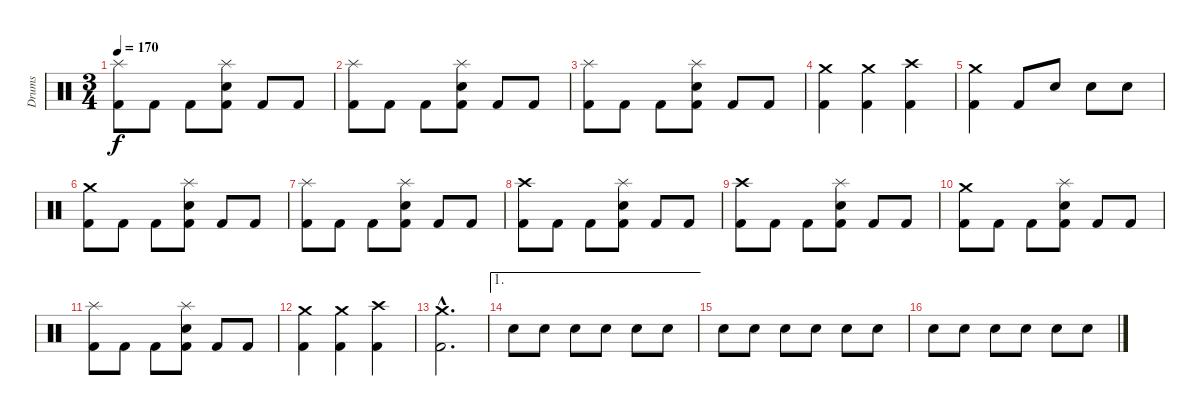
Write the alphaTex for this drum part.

\track ("Drums" "Drums") {instrument percussion}
\staff {score}
\articulation defaults
\ts (3 4)
\tempo 170
\clef neutral
\ks c
("Splash (hit)" "Kick (hit) 2").8{dy f} "Kick (hit) 2".8 "Kick (hit) 2".8 ("Splash (hit)" "Electric Snare (hit)" "Kick (hit) 2").8 "Kick (hit) 2".8 "Kick (hit) 2".8 |
("Splash (hit)" "Kick (hit) 2").8 "Kick (hit) 2".8 "Kick (hit) 2".8 ("Splash (hit)" "Electric Snare (hit)" "Kick (hit) 2").8 "Kick (hit) 2".8 "Kick (hit) 2".8 |
("Splash (hit)" "Kick (hit) 2").8 "Kick (hit) 2".8 "Kick (hit) 2".8 ("Splash (hit)" "Electric Snare (hit)" "Kick (hit) 2").8 "Kick (hit) 2".8 "Kick (hit) 2".8 |
("Crash medium (hit)" "Kick (hit) 2").4 ("Crash medium (hit)" "Kick (hit) 2").4 ("Crash high (hit)" "Kick (hit) 2").4 |
("Crash medium (hit)" "Kick (hit) 2").4 "Kick (hit) 2".8 "Electric Snare (hit)".8 "Electric Snare (hit)".8 "Electric Snare (hit)".8 |
("Crash medium (hit)" "Kick (hit) 2").8 "Kick (hit) 2".8 "Kick (hit) 2".8 ("Splash (hit)" "Electric Snare (hit)" "Kick (hit) 2").8 "Kick (hit) 2".8 "Kick (hit) 2".8 |
("Splash (hit)" "Kick (hit) 2").8 "Kick (hit) 2".8 "Kick (hit) 2".8 ("Splash (hit)" "Electric Snare (hit)" "Kick (hit) 2").8 "Kick (hit) 2".8 "Kick (hit) 2".8 |
("Crash high (hit)" "Kick (hit) 2").8 "Kick (hit) 2".8 "Kick (hit) 2".8 ("Splash (hit)" "Electric Snare (hit)" "Kick (hit) 2").8 "Kick (hit) 2".8 "Kick (hit) 2".8 |
("Crash high (hit)" "Kick (hit) 2").8 "Kick (hit) 2".8 "Kick (hit) 2".8 ("Splash (hit)" "Electric Snare (hit)" "Kick (hit) 2").8 "Kick (hit) 2".8 "Kick (hit) 2".8 |
("Crash medium (hit)" "Kick (hit) 2").8 "Kick (hit) 2".8 "Kick (hit) 2".8 ("Splash (hit)" "Electric Snare (hit)" "Kick (hit) 2").8 "Kick (hit) 2".8 "Kick (hit) 2".8 |
("Splash (hit)" "Kick (hit) 2").8 "Kick (hit) 2".8 "Kick (hit) 2".8 ("Splash (hit)" "Electric Snare (hit)" "Kick (hit) 2").8 "Kick (hit) 2".8 "Kick (hit) 2".8 |
("Crash medium (hit)" "Kick (hit) 2").4 ("Crash medium (hit)" "Kick (hit) 2").4 ("Crash high (hit)" "Kick (hit) 2").4 |
("Crash medium (hit)"{hac} "Kick (hit) 2"{hac}).2{d} |
\ae 1 "Snare (hit) 2".8{volume 5} "Snare (hit) 2".8{volume 16} "Snare (hit) 2".8 "Snare (hit) 2".8 "Snare (hit) 2".8 "Snare (hit) 2".8
|
"Snare (hit) 2".8 "Snare (hit) 2".8 "Snare (hit) 2".8 "Snare (hit) 2".8 "Snare (hit) 2".8 "Snare (hit) 2".8 |
"Snare (hit) 2".8 "Snare (hit) 2".8 "Snare (hit) 2".8 "Snare (hit) 2".8 "Snare (hit) 2".8 "Snare (hit) 2".8
